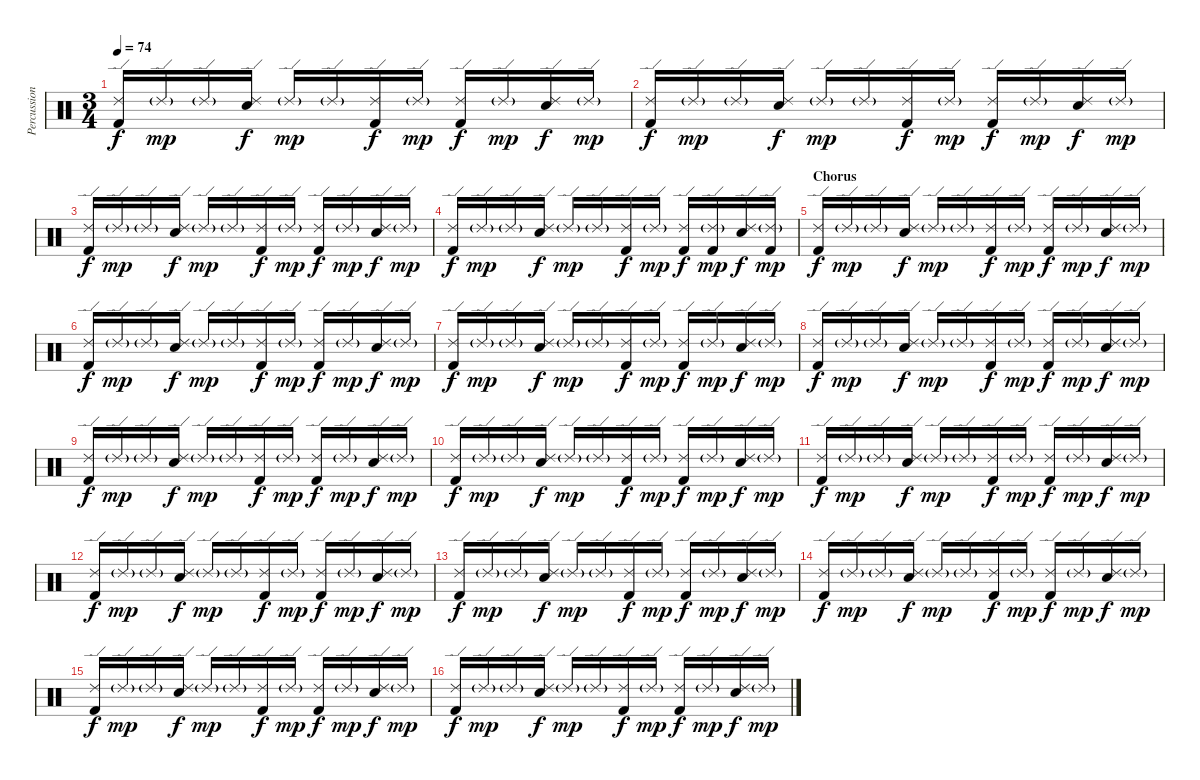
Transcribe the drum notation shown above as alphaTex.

\track ("Percussion" "Percussion") {instrument percussion}
\staff {score}
\articulation defaults
\ts (3 4)
\tempo 74
\clef neutral
\ks c
("Ride (edge) 2" "Kick (hit) 2").16{dy f} "Ride (edge) 2"{g}.16{dy mp} "Ride (edge) 2"{g}.16 ("Ride (edge) 2" "Electric Snare (hit)").16{dy f} "Ride (edge) 2"{g}.16{dy mp} "Ride (edge) 2"{g}.16 ("Ride (edge) 2" "Kick (hit) 2").16{dy f} "Ride (edge) 2"{g}.16{dy mp} ("Ride (edge) 2" "Kick (hit) 2").16{dy f} "Ride (edge) 2"{g}.16{dy mp} ("Ride (edge) 2" "Electric Snare (hit)").16{dy f} "Ride (edge) 2"{g}.16{dy mp} |
("Ride (edge) 2" "Kick (hit) 2").16{dy f} "Ride (edge) 2"{g}.16{dy mp} "Ride (edge) 2"{g}.16 ("Ride (edge) 2" "Electric Snare (hit)").16{dy f} "Ride (edge) 2"{g}.16{dy mp} "Ride (edge) 2"{g}.16 ("Ride (edge) 2" "Kick (hit) 2").16{dy f} "Ride (edge) 2"{g}.16{dy mp} ("Ride (edge) 2" "Kick (hit) 2").16{dy f} "Ride (edge) 2"{g}.16{dy mp} ("Ride (edge) 2" "Electric Snare (hit)").16{dy f} "Ride (edge) 2"{g}.16{dy mp} |
("Ride (edge) 2" "Kick (hit) 2").16{dy f} "Ride (edge) 2"{g}.16{dy mp} "Ride (edge) 2"{g}.16 ("Ride (edge) 2" "Electric Snare (hit)").16{dy f} "Ride (edge) 2"{g}.16{dy mp} "Ride (edge) 2"{g}.16 ("Ride (edge) 2" "Kick (hit) 2").16{dy f} "Ride (edge) 2"{g}.16{dy mp} ("Ride (edge) 2" "Kick (hit) 2").16{dy f} "Ride (edge) 2"{g}.16{dy mp} ("Ride (edge) 2" "Electric Snare (hit)").16{dy f} "Ride (edge) 2"{g}.16{dy mp} |
("Ride (edge) 2" "Kick (hit) 2").16{dy f} "Ride (edge) 2"{g}.16{dy mp} "Ride (edge) 2"{g}.16 ("Ride (edge) 2" "Electric Snare (hit)").16{dy f} "Ride (edge) 2"{g}.16{dy mp} "Ride (edge) 2"{g}.16 ("Ride (edge) 2" "Kick (hit) 2").16{dy f} "Ride (edge) 2"{g}.16{dy mp} ("Ride (edge) 2" "Kick (hit) 2").16{dy f} ("Ride (edge) 2"{g} "Kick (hit) 2").16{dy mp} ("Ride (edge) 2" "Electric Snare (hit)").16{dy f} ("Ride (edge) 2"{g} "Kick (hit) 2").16{dy mp} |
\section ("" "Chorus")
("Ride (edge) 2" "Kick (hit) 2").16{dy f} "Ride (edge) 2"{g}.16{dy mp} "Ride (edge) 2"{g}.16 ("Ride (edge) 2" "Electric Snare (hit)").16{dy f} "Ride (edge) 2"{g}.16{dy mp} "Ride (edge) 2"{g}.16 ("Ride (edge) 2" "Kick (hit) 2").16{dy f} "Ride (edge) 2"{g}.16{dy mp} ("Ride (edge) 2" "Kick (hit) 2").16{dy f} "Ride (edge) 2"{g}.16{dy mp} ("Ride (edge) 2" "Electric Snare (hit)").16{dy f} "Ride (edge) 2"{g}.16{dy mp} |
("Ride (edge) 2" "Kick (hit) 2").16{dy f} "Ride (edge) 2"{g}.16{dy mp} "Ride (edge) 2"{g}.16 ("Ride (edge) 2" "Electric Snare (hit)").16{dy f} "Ride (edge) 2"{g}.16{dy mp} "Ride (edge) 2"{g}.16 ("Ride (edge) 2" "Kick (hit) 2").16{dy f} "Ride (edge) 2"{g}.16{dy mp} ("Ride (edge) 2" "Kick (hit) 2").16{dy f} "Ride (edge) 2"{g}.16{dy mp} ("Ride (edge) 2" "Electric Snare (hit)").16{dy f} "Ride (edge) 2"{g}.16{dy mp} |
("Ride (edge) 2" "Kick (hit) 2").16{dy f} "Ride (edge) 2"{g}.16{dy mp} "Ride (edge) 2"{g}.16 ("Ride (edge) 2" "Electric Snare (hit)").16{dy f} "Ride (edge) 2"{g}.16{dy mp} "Ride (edge) 2"{g}.16 ("Ride (edge) 2" "Kick (hit) 2").16{dy f} "Ride (edge) 2"{g}.16{dy mp} ("Ride (edge) 2" "Kick (hit) 2").16{dy f} "Ride (edge) 2"{g}.16{dy mp} ("Ride (edge) 2" "Electric Snare (hit)").16{dy f} "Ride (edge) 2"{g}.16{dy mp} |
("Ride (edge) 2" "Kick (hit) 2").16{dy f} "Ride (edge) 2"{g}.16{dy mp} "Ride (edge) 2"{g}.16 ("Ride (edge) 2" "Electric Snare (hit)").16{dy f} "Ride (edge) 2"{g}.16{dy mp} "Ride (edge) 2"{g}.16 ("Ride (edge) 2" "Kick (hit) 2").16{dy f} "Ride (edge) 2"{g}.16{dy mp} ("Ride (edge) 2" "Kick (hit) 2").16{dy f} "Ride (edge) 2"{g}.16{dy mp} ("Ride (edge) 2" "Electric Snare (hit)").16{dy f} "Ride (edge) 2"{g}.16{dy mp} |
("Ride (edge) 2" "Kick (hit) 2").16{dy f} "Ride (edge) 2"{g}.16{dy mp} "Ride (edge) 2"{g}.16 ("Ride (edge) 2" "Electric Snare (hit)").16{dy f} "Ride (edge) 2"{g}.16{dy mp} "Ride (edge) 2"{g}.16 ("Ride (edge) 2" "Kick (hit) 2").16{dy f} "Ride (edge) 2"{g}.16{dy mp} ("Ride (edge) 2" "Kick (hit) 2").16{dy f} "Ride (edge) 2"{g}.16{dy mp} ("Ride (edge) 2" "Electric Snare (hit)").16{dy f} "Ride (edge) 2"{g}.16{dy mp} |
("Ride (edge) 2" "Kick (hit) 2").16{dy f} "Ride (edge) 2"{g}.16{dy mp} "Ride (edge) 2"{g}.16 ("Ride (edge) 2" "Electric Snare (hit)").16{dy f} "Ride (edge) 2"{g}.16{dy mp} "Ride (edge) 2"{g}.16 ("Ride (edge) 2" "Kick (hit) 2").16{dy f} "Ride (edge) 2"{g}.16{dy mp} ("Ride (edge) 2" "Kick (hit) 2").16{dy f} "Ride (edge) 2"{g}.16{dy mp} ("Ride (edge) 2" "Electric Snare (hit)").16{dy f} "Ride (edge) 2"{g}.16{dy mp} |
("Ride (edge) 2" "Kick (hit) 2").16{dy f} "Ride (edge) 2"{g}.16{dy mp} "Ride (edge) 2"{g}.16 ("Ride (edge) 2" "Electric Snare (hit)").16{dy f} "Ride (edge) 2"{g}.16{dy mp} "Ride (edge) 2"{g}.16 ("Ride (edge) 2" "Kick (hit) 2").16{dy f} "Ride (edge) 2"{g}.16{dy mp} ("Ride (edge) 2" "Kick (hit) 2").16{dy f} "Ride (edge) 2"{g}.16{dy mp} ("Ride (edge) 2" "Electric Snare (hit)").16{dy f} "Ride (edge) 2"{g}.16{dy mp} |
("Ride (edge) 2" "Kick (hit) 2").16{dy f} "Ride (edge) 2"{g}.16{dy mp} "Ride (edge) 2"{g}.16 ("Ride (edge) 2" "Electric Snare (hit)").16{dy f} "Ride (edge) 2"{g}.16{dy mp} "Ride (edge) 2"{g}.16 ("Ride (edge) 2" "Kick (hit) 2").16{dy f} "Ride (edge) 2"{g}.16{dy mp} ("Ride (edge) 2" "Kick (hit) 2").16{dy f} "Ride (edge) 2"{g}.16{dy mp} ("Ride (edge) 2" "Electric Snare (hit)").16{dy f} "Ride (edge) 2"{g}.16{dy mp} |
("Ride (edge) 2" "Kick (hit) 2").16{dy f} "Ride (edge) 2"{g}.16{dy mp} "Ride (edge) 2"{g}.16 ("Ride (edge) 2" "Electric Snare (hit)").16{dy f} "Ride (edge) 2"{g}.16{dy mp} "Ride (edge) 2"{g}.16 ("Ride (edge) 2" "Kick (hit) 2").16{dy f} "Ride (edge) 2"{g}.16{dy mp} ("Ride (edge) 2" "Kick (hit) 2").16{dy f} "Ride (edge) 2"{g}.16{dy mp} ("Ride (edge) 2" "Electric Snare (hit)").16{dy f} "Ride (edge) 2"{g}.16{dy mp} |
("Ride (edge) 2" "Kick (hit) 2").16{dy f} "Ride (edge) 2"{g}.16{dy mp} "Ride (edge) 2"{g}.16 ("Ride (edge) 2" "Electric Snare (hit)").16{dy f} "Ride (edge) 2"{g}.16{dy mp} "Ride (edge) 2"{g}.16 ("Ride (edge) 2" "Kick (hit) 2").16{dy f} "Ride (edge) 2"{g}.16{dy mp} ("Ride (edge) 2" "Kick (hit) 2").16{dy f} "Ride (edge) 2"{g}.16{dy mp} ("Ride (edge) 2" "Electric Snare (hit)").16{dy f} "Ride (edge) 2"{g}.16{dy mp} |
("Ride (edge) 2" "Kick (hit) 2").16{dy f} "Ride (edge) 2"{g}.16{dy mp} "Ride (edge) 2"{g}.16 ("Ride (edge) 2" "Electric Snare (hit)").16{dy f} "Ride (edge) 2"{g}.16{dy mp} "Ride (edge) 2"{g}.16 ("Ride (edge) 2" "Kick (hit) 2").16{dy f} "Ride (edge) 2"{g}.16{dy mp} ("Ride (edge) 2" "Kick (hit) 2").16{dy f} "Ride (edge) 2"{g}.16{dy mp} ("Ride (edge) 2" "Electric Snare (hit)").16{dy f} "Ride (edge) 2"{g}.16{dy mp} |
("Ride (edge) 2" "Kick (hit) 2").16{dy f} "Ride (edge) 2"{g}.16{dy mp} "Ride (edge) 2"{g}.16 ("Ride (edge) 2" "Electric Snare (hit)").16{dy f} "Ride (edge) 2"{g}.16{dy mp} "Ride (edge) 2"{g}.16 ("Ride (edge) 2" "Kick (hit) 2").16{dy f} "Ride (edge) 2"{g}.16{dy mp} ("Ride (edge) 2" "Kick (hit) 2").16{dy f} "Ride (edge) 2"{g}.16{dy mp} ("Ride (edge) 2" "Electric Snare (hit)").16{dy f} "Ride (edge) 2"{g}.16{dy mp}
